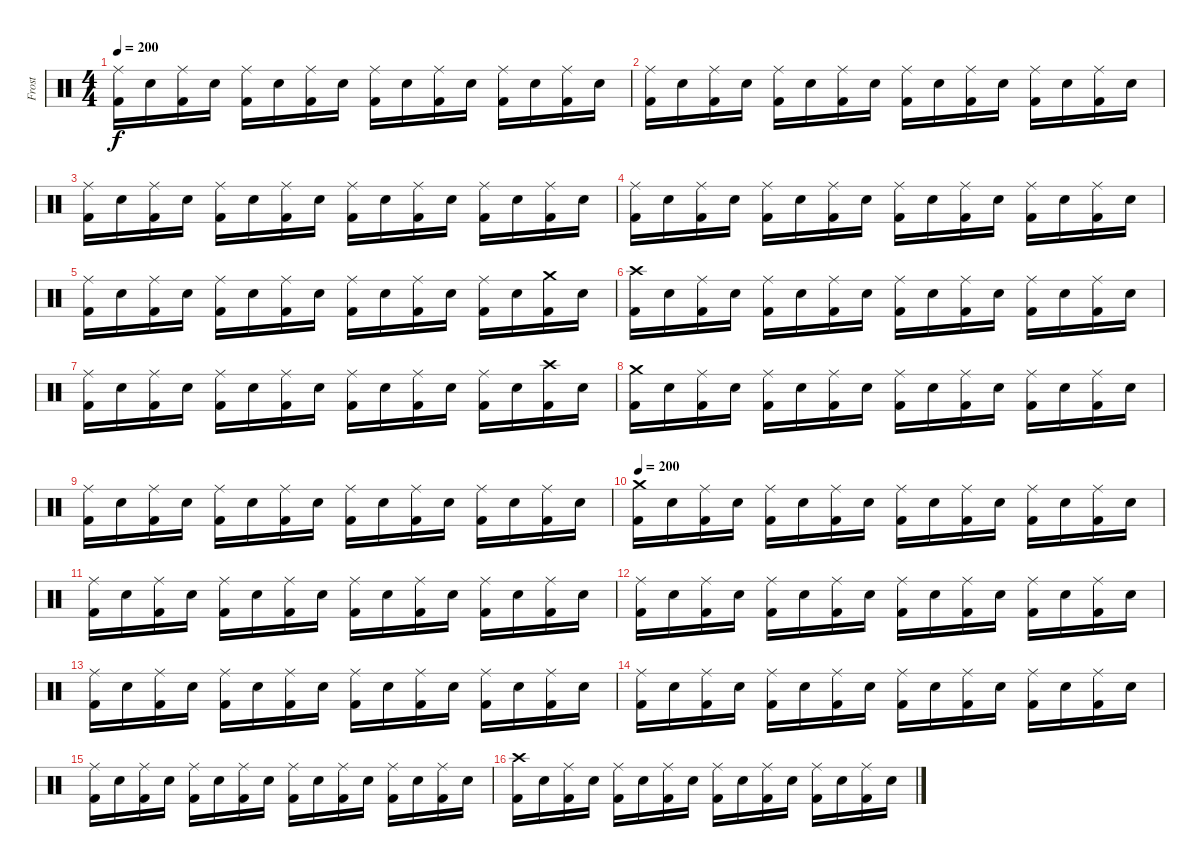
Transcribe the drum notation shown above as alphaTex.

\track ("Frost" "Frost") {instrument percussion}
\staff {score}
\articulation defaults
\ts (4 4)
\tempo 200
\clef neutral
\ks c
("Ride (middle)" "Kick (hit) 2").16{dy f} "Electric Snare (hit)".16 ("Ride (middle)" "Kick (hit) 2").16 "Electric Snare (hit)".16 ("Ride (middle)" "Kick (hit) 2").16 "Electric Snare (hit)".16 ("Ride (middle)" "Kick (hit) 2").16 "Electric Snare (hit)".16 ("Ride (middle)" "Kick (hit) 2").16 "Electric Snare (hit)".16 ("Ride (middle)" "Kick (hit) 2").16 "Electric Snare (hit)".16 ("Ride (middle)" "Kick (hit) 2").16 "Electric Snare (hit)".16 ("Ride (middle)" "Kick (hit) 2").16 "Electric Snare (hit)".16 |
("Ride (middle)" "Kick (hit) 2").16 "Electric Snare (hit)".16 ("Ride (middle)" "Kick (hit) 2").16 "Electric Snare (hit)".16 ("Ride (middle)" "Kick (hit) 2").16 "Electric Snare (hit)".16 ("Ride (middle)" "Kick (hit) 2").16 "Electric Snare (hit)".16 ("Ride (middle)" "Kick (hit) 2").16 "Electric Snare (hit)".16 ("Ride (middle)" "Kick (hit) 2").16 "Electric Snare (hit)".16 ("Ride (middle)" "Kick (hit) 2").16 "Electric Snare (hit)".16 ("Ride (middle)" "Kick (hit) 2").16 "Electric Snare (hit)".16 |
("Ride (middle)" "Kick (hit) 2").16 "Electric Snare (hit)".16 ("Ride (middle)" "Kick (hit) 2").16 "Electric Snare (hit)".16 ("Ride (middle)" "Kick (hit) 2").16 "Electric Snare (hit)".16 ("Ride (middle)" "Kick (hit) 2").16 "Electric Snare (hit)".16 ("Ride (middle)" "Kick (hit) 2").16 "Electric Snare (hit)".16 ("Ride (middle)" "Kick (hit) 2").16 "Electric Snare (hit)".16 ("Ride (middle)" "Kick (hit) 2").16 "Electric Snare (hit)".16 ("Ride (middle)" "Kick (hit) 2").16 "Electric Snare (hit)".16 |
("Ride (middle)" "Kick (hit) 2").16 "Electric Snare (hit)".16 ("Ride (middle)" "Kick (hit) 2").16 "Electric Snare (hit)".16 ("Ride (middle)" "Kick (hit) 2").16 "Electric Snare (hit)".16 ("Ride (middle)" "Kick (hit) 2").16 "Electric Snare (hit)".16 ("Ride (middle)" "Kick (hit) 2").16 "Electric Snare (hit)".16 ("Ride (middle)" "Kick (hit) 2").16 "Electric Snare (hit)".16 ("Ride (middle)" "Kick (hit) 2").16 "Electric Snare (hit)".16 ("Ride (middle)" "Kick (hit) 2").16 "Electric Snare (hit)".16 |
("Ride (middle)" "Kick (hit) 2").16 "Electric Snare (hit)".16 ("Ride (middle)" "Kick (hit) 2").16 "Electric Snare (hit)".16 ("Ride (middle)" "Kick (hit) 2").16 "Electric Snare (hit)".16 ("Ride (middle)" "Kick (hit) 2").16 "Electric Snare (hit)".16 ("Ride (middle)" "Kick (hit) 2").16 "Electric Snare (hit)".16 ("Ride (middle)" "Kick (hit) 2").16 "Electric Snare (hit)".16 ("Ride (middle)" "Kick (hit) 2").16 "Electric Snare (hit)".16 ("Crash medium (hit)" "Kick (hit) 2").16 "Electric Snare (hit)".16 |
("Crash high (hit)" "Kick (hit) 2").16 "Electric Snare (hit)".16 ("Ride (middle)" "Kick (hit) 2").16 "Electric Snare (hit)".16 ("Ride (middle)" "Kick (hit) 2").16 "Electric Snare (hit)".16 ("Ride (middle)" "Kick (hit) 2").16 "Electric Snare (hit)".16 ("Ride (middle)" "Kick (hit) 2").16 "Electric Snare (hit)".16 ("Ride (middle)" "Kick (hit) 2").16 "Electric Snare (hit)".16 ("Ride (middle)" "Kick (hit) 2").16 "Electric Snare (hit)".16 ("Ride (middle)" "Kick (hit) 2").16 "Electric Snare (hit)".16 |
("Ride (middle)" "Kick (hit) 2").16 "Electric Snare (hit)".16 ("Ride (middle)" "Kick (hit) 2").16 "Electric Snare (hit)".16 ("Ride (middle)" "Kick (hit) 2").16 "Electric Snare (hit)".16 ("Ride (middle)" "Kick (hit) 2").16 "Electric Snare (hit)".16 ("Ride (middle)" "Kick (hit) 2").16 "Electric Snare (hit)".16 ("Ride (middle)" "Kick (hit) 2").16 "Electric Snare (hit)".16 ("Ride (middle)" "Kick (hit) 2").16 "Electric Snare (hit)".16 ("Crash high (hit)" "Kick (hit) 2").16 "Electric Snare (hit)".16 |
("Crash medium (hit)" "Kick (hit) 2").16 "Electric Snare (hit)".16 ("Ride (middle)" "Kick (hit) 2").16 "Electric Snare (hit)".16 ("Ride (middle)" "Kick (hit) 2").16 "Electric Snare (hit)".16 ("Ride (middle)" "Kick (hit) 2").16 "Electric Snare (hit)".16 ("Ride (middle)" "Kick (hit) 2").16 "Electric Snare (hit)".16 ("Ride (middle)" "Kick (hit) 2").16 "Electric Snare (hit)".16 ("Ride (middle)" "Kick (hit) 2").16 "Electric Snare (hit)".16 ("Ride (middle)" "Kick (hit) 2").16 "Electric Snare (hit)".16 |
("Ride (middle)" "Kick (hit) 2").16 "Electric Snare (hit)".16 ("Ride (middle)" "Kick (hit) 2").16 "Electric Snare (hit)".16 ("Ride (middle)" "Kick (hit) 2").16 "Electric Snare (hit)".16 ("Ride (middle)" "Kick (hit) 2").16 "Electric Snare (hit)".16 ("Ride (middle)" "Kick (hit) 2").16 "Electric Snare (hit)".16 ("Ride (middle)" "Kick (hit) 2").16 "Electric Snare (hit)".16 ("Ride (middle)" "Kick (hit) 2").16 "Electric Snare (hit)".16 ("Ride (middle)" "Kick (hit) 2").16 "Electric Snare (hit)".16 |
\tempo 200
("Crash medium (hit)" "Kick (hit) 2").16 "Electric Snare (hit)".16 ("Ride (middle)" "Kick (hit) 2").16 "Electric Snare (hit)".16 ("Ride (middle)" "Kick (hit) 2").16 "Electric Snare (hit)".16 ("Ride (middle)" "Kick (hit) 2").16 "Electric Snare (hit)".16 ("Ride (middle)" "Kick (hit) 2").16 "Electric Snare (hit)".16 ("Ride (middle)" "Kick (hit) 2").16 "Electric Snare (hit)".16 ("Ride (middle)" "Kick (hit) 2").16 "Electric Snare (hit)".16 ("Ride (middle)" "Kick (hit) 2").16 "Electric Snare (hit)".16 |
("Ride (middle)" "Kick (hit) 2").16 "Electric Snare (hit)".16 ("Ride (middle)" "Kick (hit) 2").16 "Electric Snare (hit)".16 ("Ride (middle)" "Kick (hit) 2").16 "Electric Snare (hit)".16 ("Ride (middle)" "Kick (hit) 2").16 "Electric Snare (hit)".16 ("Ride (middle)" "Kick (hit) 2").16 "Electric Snare (hit)".16 ("Ride (middle)" "Kick (hit) 2").16 "Electric Snare (hit)".16 ("Ride (middle)" "Kick (hit) 2").16 "Electric Snare (hit)".16 ("Ride (middle)" "Kick (hit) 2").16 "Electric Snare (hit)".16 |
("Ride (middle)" "Kick (hit) 2").16 "Electric Snare (hit)".16 ("Ride (middle)" "Kick (hit) 2").16 "Electric Snare (hit)".16 ("Ride (middle)" "Kick (hit) 2").16 "Electric Snare (hit)".16 ("Ride (middle)" "Kick (hit) 2").16 "Electric Snare (hit)".16 ("Ride (middle)" "Kick (hit) 2").16 "Electric Snare (hit)".16 ("Ride (middle)" "Kick (hit) 2").16 "Electric Snare (hit)".16 ("Ride (middle)" "Kick (hit) 2").16 "Electric Snare (hit)".16 ("Ride (middle)" "Kick (hit) 2").16 "Electric Snare (hit)".16 |
("Ride (middle)" "Kick (hit) 2").16 "Electric Snare (hit)".16 ("Ride (middle)" "Kick (hit) 2").16 "Electric Snare (hit)".16 ("Ride (middle)" "Kick (hit) 2").16 "Electric Snare (hit)".16 ("Ride (middle)" "Kick (hit) 2").16 "Electric Snare (hit)".16 ("Ride (middle)" "Kick (hit) 2").16 "Electric Snare (hit)".16 ("Ride (middle)" "Kick (hit) 2").16 "Electric Snare (hit)".16 ("Ride (middle)" "Kick (hit) 2").16 "Electric Snare (hit)".16 ("Ride (middle)" "Kick (hit) 2").16 "Electric Snare (hit)".16 |
("Ride (middle)" "Kick (hit) 2").16 "Electric Snare (hit)".16 ("Ride (middle)" "Kick (hit) 2").16 "Electric Snare (hit)".16 ("Ride (middle)" "Kick (hit) 2").16 "Electric Snare (hit)".16 ("Ride (middle)" "Kick (hit) 2").16 "Electric Snare (hit)".16 ("Ride (middle)" "Kick (hit) 2").16 "Electric Snare (hit)".16 ("Ride (middle)" "Kick (hit) 2").16 "Electric Snare (hit)".16 ("Ride (middle)" "Kick (hit) 2").16 "Electric Snare (hit)".16 ("Ride (middle)" "Kick (hit) 2").16 "Electric Snare (hit)".16 |
("Ride (middle)" "Kick (hit) 2").16 "Electric Snare (hit)".16 ("Ride (middle)" "Kick (hit) 2").16 "Electric Snare (hit)".16 ("Ride (middle)" "Kick (hit) 2").16 "Electric Snare (hit)".16 ("Ride (middle)" "Kick (hit) 2").16 "Electric Snare (hit)".16 ("Ride (middle)" "Kick (hit) 2").16 "Electric Snare (hit)".16 ("Ride (middle)" "Kick (hit) 2").16 "Electric Snare (hit)".16 ("Ride (middle)" "Kick (hit) 2").16 "Electric Snare (hit)".16 ("Ride (middle)" "Kick (hit) 2").16 "Electric Snare (hit)".16 |
("Crash high (hit)" "Kick (hit) 2").16 "Electric Snare (hit)".16 ("Ride (middle)" "Kick (hit) 2").16 "Electric Snare (hit)".16 ("Ride (middle)" "Kick (hit) 2").16 "Electric Snare (hit)".16 ("Ride (middle)" "Kick (hit) 2").16 "Electric Snare (hit)".16 ("Ride (middle)" "Kick (hit) 2").16 "Electric Snare (hit)".16 ("Ride (middle)" "Kick (hit) 2").16 "Electric Snare (hit)".16 ("Ride (middle)" "Kick (hit) 2").16 "Electric Snare (hit)".16 ("Ride (middle)" "Kick (hit) 2").16 "Electric Snare (hit)".16
